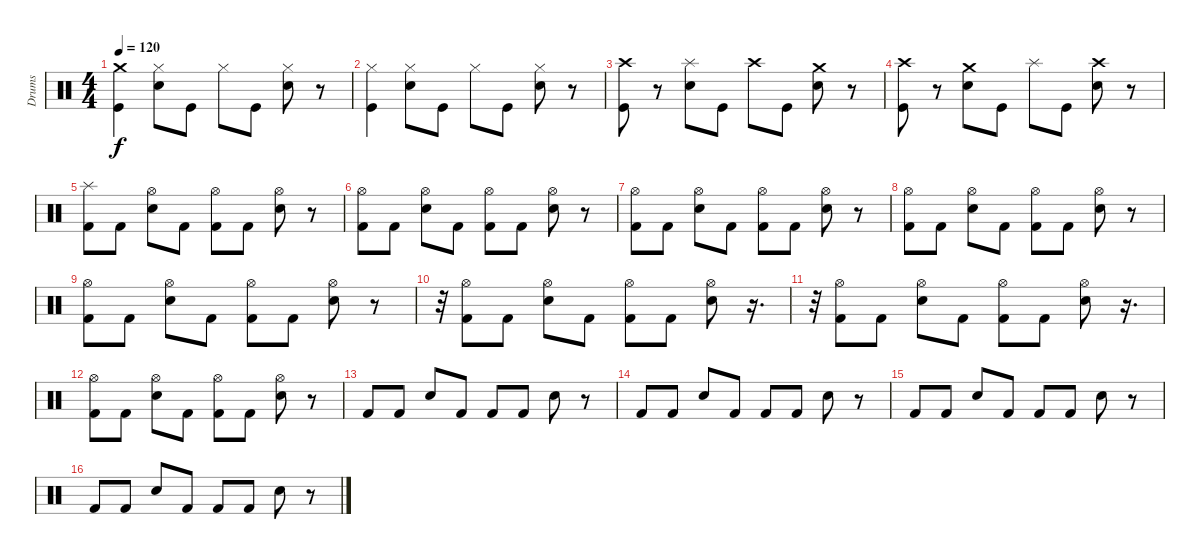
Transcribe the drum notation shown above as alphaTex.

\track ("Drums" "Drums") {instrument percussion}
\staff {score}
\articulation defaults
\ts (4 4)
\tempo 120
\clef neutral
\ks c
("Crash medium (hit)" "Kick (hit)").4{dy f} ("Electric Snare (hit)" "Hi-Hat (closed)").8 "Kick (hit)".8 "Hi-Hat (closed)".8 "Kick (hit)".8 ("Electric Snare (hit)" "Hi-Hat (closed)").8 r.8 |
("Hi-Hat (closed)" "Kick (hit)").4 ("Electric Snare (hit)" "Hi-Hat (closed)").8 "Kick (hit)".8 "Hi-Hat (closed)".8 "Kick (hit)".8 ("Electric Snare (hit)" "Hi-Hat (closed)").8 r.8 |
("Kick (hit)" "Crash high (hit)").8 r.8 ("Electric Snare (hit)" "Splash (hit)").8 "Kick (hit)".8 "Crash high (hit)".8 "Kick (hit)".8 ("Electric Snare (hit)" "Crash medium (hit)").8 r.8 |
("Kick (hit)" "Crash high (hit)").8 r.8 ("Electric Snare (hit)" "Crash medium (hit)").8 "Kick (hit)".8 "Splash (hit)".8 "Kick (hit)".8 ("Electric Snare (hit)" "Crash high (hit)").8 r.8 |
("Splash (hit)" "Kick (hit) 2").8 "Kick (hit) 2".8 ("Hi-Hat (open)" "Electric Snare (hit)").8 "Kick (hit) 2".8 ("Hi-Hat (open)" "Kick (hit) 2").8 "Kick (hit) 2".8 ("Hi-Hat (open)" "Electric Snare (hit)").8 r.8 |
("Hi-Hat (open)" "Kick (hit) 2").8 "Kick (hit) 2".8 ("Hi-Hat (open)" "Electric Snare (hit)").8 "Kick (hit) 2".8 ("Hi-Hat (open)" "Kick (hit) 2").8 "Kick (hit) 2".8 ("Hi-Hat (open)" "Electric Snare (hit)").8 r.8 |
("Hi-Hat (open)" "Kick (hit) 2").8 "Kick (hit) 2".8 ("Hi-Hat (open)" "Electric Snare (hit)").8 "Kick (hit) 2".8 ("Hi-Hat (open)" "Kick (hit) 2").8 "Kick (hit) 2".8 ("Hi-Hat (open)" "Electric Snare (hit)").8 r.8 |
("Hi-Hat (open)" "Kick (hit) 2").8 "Kick (hit) 2".8 ("Hi-Hat (open)" "Electric Snare (hit)").8 "Kick (hit) 2".8 ("Hi-Hat (open)" "Kick (hit) 2").8 "Kick (hit) 2".8 ("Hi-Hat (open)" "Electric Snare (hit)").8 r.8 |
("Hi-Hat (open)" "Kick (hit) 2").8 "Kick (hit) 2".8 ("Hi-Hat (open)" "Electric Snare (hit)").8 "Kick (hit) 2".8 ("Hi-Hat (open)" "Kick (hit) 2").8 "Kick (hit) 2".8 ("Hi-Hat (open)" "Electric Snare (hit)").8 r.8 |
r.32 ("Hi-Hat (open)" "Kick (hit) 2").8 "Kick (hit) 2".8 ("Hi-Hat (open)" "Electric Snare (hit)").8 "Kick (hit) 2".8 ("Hi-Hat (open)" "Kick (hit) 2").8 "Kick (hit) 2".8 ("Hi-Hat (open)" "Electric Snare (hit)").8 r.16{d} |
r.32 ("Hi-Hat (open)" "Kick (hit) 2").8 "Kick (hit) 2".8 ("Hi-Hat (open)" "Electric Snare (hit)").8 "Kick (hit) 2".8 ("Hi-Hat (open)" "Kick (hit) 2").8 "Kick (hit) 2".8 ("Hi-Hat (open)" "Electric Snare (hit)").8 r.16{d} |
("Hi-Hat (open)" "Kick (hit) 2").8 "Kick (hit) 2".8 ("Hi-Hat (open)" "Electric Snare (hit)").8 "Kick (hit) 2".8 ("Hi-Hat (open)" "Kick (hit) 2").8 "Kick (hit) 2".8 ("Hi-Hat (open)" "Electric Snare (hit)").8 r.8 |
"Kick (hit) 2".8 "Kick (hit) 2".8 "Electric Snare (hit)".8 "Kick (hit) 2".8 "Kick (hit) 2".8 "Kick (hit) 2".8 "Electric Snare (hit)".8 r.8 |
"Kick (hit) 2".8 "Kick (hit) 2".8 "Electric Snare (hit)".8 "Kick (hit) 2".8 "Kick (hit) 2".8 "Kick (hit) 2".8 "Electric Snare (hit)".8 r.8 |
"Kick (hit) 2".8 "Kick (hit) 2".8 "Electric Snare (hit)".8 "Kick (hit) 2".8 "Kick (hit) 2".8 "Kick (hit) 2".8 "Electric Snare (hit)".8 r.8 |
"Kick (hit) 2".8 "Kick (hit) 2".8 "Electric Snare (hit)".8 "Kick (hit) 2".8 "Kick (hit) 2".8 "Kick (hit) 2".8 "Electric Snare (hit)".8 r.8
